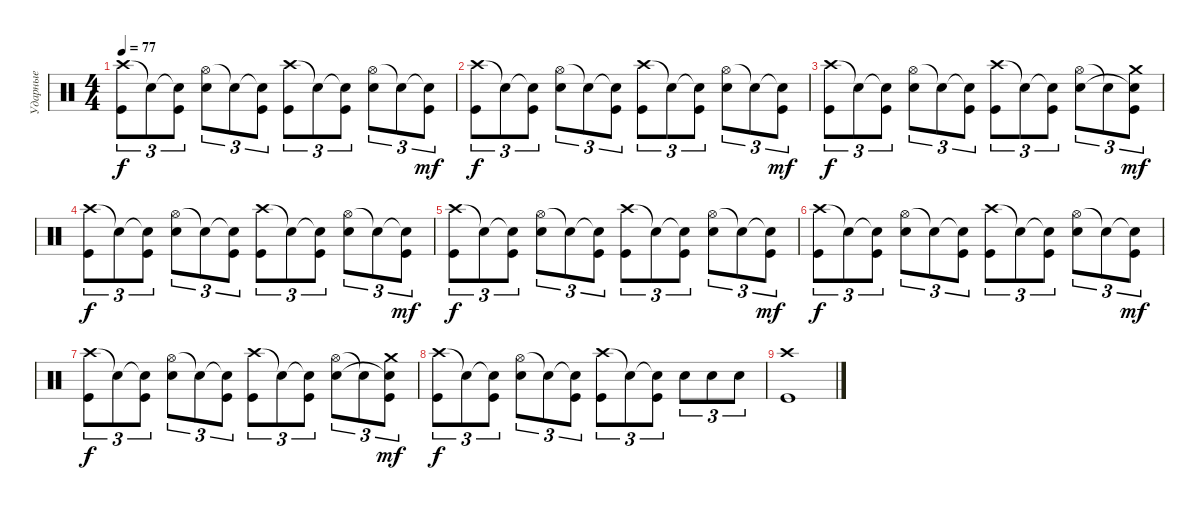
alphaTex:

\track ("Ударные" "Ударные") {instrument percussion}
\staff {score}
\articulation defaults
\ts (4 4)
\tempo 77
\clef neutral
\ks c
("Crash high (hit)" "Kick (hit)").8{tu (3 2) dy f} "Snare (hit)"{t}.8{tu (3 2)} ("Snare (hit)"{t} "Kick (hit)").8{tu (3 2)} ("Hi-Hat (open)" "Snare (hit) 2").8{tu (3 2)} "Snare (hit)"{t}.8{tu (3 2)} ("Snare (hit)"{t} "Kick (hit)").8{tu (3 2)} ("Crash high (hit)" "Kick (hit)").8{tu (3 2)} "Snare (hit)"{t}.8{tu (3 2)} ("Snare (hit)"{t} "Kick (hit)").8{tu (3 2)} ("Hi-Hat (open)" "Snare (hit) 2").8{tu (3 2)} "Snare (hit)"{t}.8{tu (3 2)} ("Snare (hit)"{t} "Kick (hit)").8{tu (3 2) dy mf} |
("Crash high (hit)" "Kick (hit)").8{tu (3 2) dy f} "Snare (hit)"{t}.8{tu (3 2)} ("Snare (hit)"{t} "Kick (hit)").8{tu (3 2)} ("Hi-Hat (open)" "Snare (hit) 2").8{tu (3 2)} "Snare (hit)"{t}.8{tu (3 2)} ("Snare (hit)"{t} "Kick (hit)").8{tu (3 2)} ("Crash high (hit)" "Kick (hit)").8{tu (3 2)} "Snare (hit)"{t}.8{tu (3 2)} ("Snare (hit)"{t} "Kick (hit)").8{tu (3 2)} ("Hi-Hat (open)" "Snare (hit) 2").8{tu (3 2)} "Snare (hit)"{t}.8{tu (3 2)} ("Snare (hit)"{t} "Kick (hit)").8{tu (3 2) dy mf} |
("Crash high (hit)" "Kick (hit)").8{tu (3 2) dy f} "Snare (hit)"{t}.8{tu (3 2)} ("Snare (hit)"{t} "Kick (hit)").8{tu (3 2)} ("Hi-Hat (open)" "Snare (hit) 2").8{tu (3 2)} "Snare (hit)"{t}.8{tu (3 2)} ("Snare (hit)"{t} "Kick (hit)").8{tu (3 2)} ("Crash high (hit)" "Kick (hit)").8{tu (3 2)} "Snare (hit)"{t}.8{tu (3 2)} ("Snare (hit)"{t} "Kick (hit)").8{tu (3 2)} ("Hi-Hat (open)" "Snare (hit) 2").8{tu (3 2)} "Snare (hit)"{t}.8{tu (3 2)} ("Crash medium (hit)" "Snare (hit)"{t} "Kick (hit)").8{tu (3 2) dy mf} |
("Crash high (hit)" "Kick (hit)").8{tu (3 2) dy f} "Snare (hit)"{t}.8{tu (3 2)} ("Snare (hit)"{t} "Kick (hit)").8{tu (3 2)} ("Hi-Hat (open)" "Snare (hit) 2").8{tu (3 2)} "Snare (hit)"{t}.8{tu (3 2)} ("Snare (hit)"{t} "Kick (hit)").8{tu (3 2)} ("Crash high (hit)" "Kick (hit)").8{tu (3 2)} "Snare (hit)"{t}.8{tu (3 2)} ("Snare (hit)"{t} "Kick (hit)").8{tu (3 2)} ("Hi-Hat (open)" "Snare (hit) 2").8{tu (3 2)} "Snare (hit)"{t}.8{tu (3 2)} ("Snare (hit)"{t} "Kick (hit)").8{tu (3 2) dy mf} |
("Crash high (hit)" "Kick (hit)").8{tu (3 2) dy f} "Snare (hit)"{t}.8{tu (3 2)} ("Snare (hit)"{t} "Kick (hit)").8{tu (3 2)} ("Hi-Hat (open)" "Snare (hit) 2").8{tu (3 2)} "Snare (hit)"{t}.8{tu (3 2)} ("Snare (hit)"{t} "Kick (hit)").8{tu (3 2)} ("Crash high (hit)" "Kick (hit)").8{tu (3 2)} "Snare (hit)"{t}.8{tu (3 2)} ("Snare (hit)"{t} "Kick (hit)").8{tu (3 2)} ("Hi-Hat (open)" "Snare (hit) 2").8{tu (3 2)} "Snare (hit)"{t}.8{tu (3 2)} ("Snare (hit)"{t} "Kick (hit)").8{tu (3 2) dy mf} |
("Crash high (hit)" "Kick (hit)").8{tu (3 2) dy f} "Snare (hit)"{t}.8{tu (3 2)} ("Snare (hit)"{t} "Kick (hit)").8{tu (3 2)} ("Hi-Hat (open)" "Snare (hit) 2").8{tu (3 2)} "Snare (hit)"{t}.8{tu (3 2)} ("Snare (hit)"{t} "Kick (hit)").8{tu (3 2)} ("Crash high (hit)" "Kick (hit)").8{tu (3 2)} "Snare (hit)"{t}.8{tu (3 2)} ("Snare (hit)"{t} "Kick (hit)").8{tu (3 2)} ("Hi-Hat (open)" "Snare (hit) 2").8{tu (3 2)} "Snare (hit)"{t}.8{tu (3 2)} ("Snare (hit)"{t} "Kick (hit)").8{tu (3 2) dy mf} |
("Crash high (hit)" "Kick (hit)").8{tu (3 2) dy f} "Snare (hit)"{t}.8{tu (3 2)} ("Snare (hit)"{t} "Kick (hit)").8{tu (3 2)} ("Hi-Hat (open)" "Snare (hit) 2").8{tu (3 2)} "Snare (hit)"{t}.8{tu (3 2)} ("Snare (hit)"{t} "Kick (hit)").8{tu (3 2)} ("Crash high (hit)" "Kick (hit)").8{tu (3 2)} "Snare (hit)"{t}.8{tu (3 2)} ("Snare (hit)"{t} "Kick (hit)").8{tu (3 2)} ("Hi-Hat (open)" "Snare (hit) 2").8{tu (3 2)} "Snare (hit)"{t}.8{tu (3 2)} ("Crash medium (hit)" "Snare (hit)"{t} "Kick (hit)").8{tu (3 2) dy mf} |
("Crash high (hit)" "Kick (hit)").8{tu (3 2) dy f} "Snare (hit)"{t}.8{tu (3 2)} ("Snare (hit)"{t} "Kick (hit)").8{tu (3 2)} ("Hi-Hat (open)" "Snare (hit) 2").8{tu (3 2)} "Snare (hit)"{t}.8{tu (3 2)} ("Snare (hit)"{t} "Kick (hit)").8{tu (3 2)} ("Crash high (hit)" "Kick (hit)").8{tu (3 2)} "Snare (hit)"{t}.8{tu (3 2)} ("Snare (hit)"{t} "Kick (hit)").8{tu (3 2)} "Snare (hit) 2".8{tu (3 2)} "Snare (hit) 2".8{tu (3 2)} "Snare (hit) 2".8{tu (3 2)} |
("Crash high (hit)" "Kick (hit)").1
